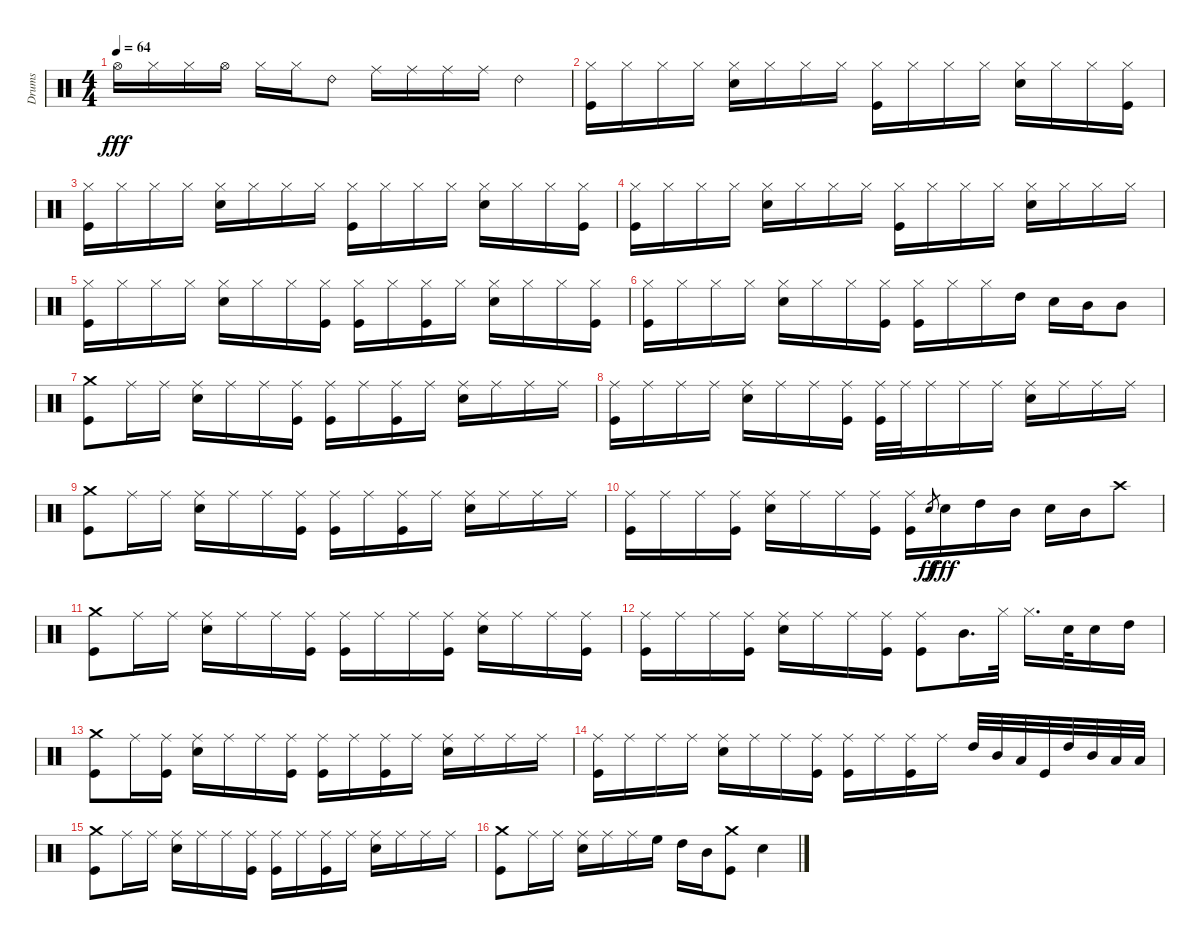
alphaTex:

\track ("Drums" "Drums") {instrument percussion}
\staff {score}
\articulation defaults
\ts (4 4)
\tempo 64
\clef neutral
\scale
0.333333
\ks c "Hi-Hat (open)".16{dy fff} "Hi-Hat (closed)".16 "Hi-Hat (closed)".16 "Hi-Hat (open)".16 "Hi-Hat (closed)".16 "Hi-Hat (closed)".16 "Ride (bell) 2".8 "Ride (middle)".16 "Ride (middle)".16 "Ride (middle)".16 "Ride (middle)".16 "Ride (bell) 2".4
|
\scale
0.333333 ("Hi-Hat (closed)" "Kick (hit)").16 "Hi-Hat (closed)".16 "Hi-Hat (closed)".16 "Hi-Hat (closed)".16 ("Hi-Hat (closed)" "Snare (hit) 2").16 "Hi-Hat (closed)".16 "Hi-Hat (closed)".16 "Hi-Hat (closed)".16 ("Hi-Hat (closed)" "Kick (hit)").16 "Hi-Hat (closed)".16 "Hi-Hat (closed)".16 "Hi-Hat (closed)".16 ("Hi-Hat (closed)" "Snare (hit) 2").16 "Hi-Hat (closed)".16 "Hi-Hat (closed)".16 ("Hi-Hat (closed)" "Kick (hit)").16 |
\scale
0.333333 ("Hi-Hat (closed)" "Kick (hit)").16 "Hi-Hat (closed)".16 "Hi-Hat (closed)".16 "Hi-Hat (closed)".16 ("Hi-Hat (closed)" "Snare (hit) 2").16 "Hi-Hat (closed)".16 "Hi-Hat (closed)".16 "Hi-Hat (closed)".16 ("Hi-Hat (closed)" "Kick (hit)").16 "Hi-Hat (closed)".16 "Hi-Hat (closed)".16 "Hi-Hat (closed)".16 ("Hi-Hat (closed)" "Snare (hit) 2").16 "Hi-Hat (closed)".16 "Hi-Hat (closed)".16 ("Hi-Hat (closed)" "Kick (hit)").16 |
\scale
0.333333 ("Hi-Hat (closed)" "Kick (hit)").16 "Hi-Hat (closed)".16 "Hi-Hat (closed)".16 "Hi-Hat (closed)".16 ("Hi-Hat (closed)" "Snare (hit) 2").16 "Hi-Hat (closed)".16 "Hi-Hat (closed)".16 "Hi-Hat (closed)".16 ("Hi-Hat (closed)" "Kick (hit)").16 "Hi-Hat (closed)".16 "Hi-Hat (closed)".16 "Hi-Hat (closed)".16 ("Hi-Hat (closed)" "Snare (hit) 2").16 "Hi-Hat (closed)".16 "Hi-Hat (closed)".16 "Hi-Hat (closed)".16 |
\scale
0.333333 ("Hi-Hat (closed)" "Kick (hit)").16 "Hi-Hat (closed)".16 "Hi-Hat (closed)".16 "Hi-Hat (closed)".16 ("Hi-Hat (closed)" "Snare (hit) 2").16 "Hi-Hat (closed)".16 "Hi-Hat (closed)".16 ("Hi-Hat (closed)" "Kick (hit)").16 ("Hi-Hat (closed)" "Kick (hit)").16 "Hi-Hat (closed)".16 ("Hi-Hat (closed)" "Kick (hit)").16 "Hi-Hat (closed)".16 ("Hi-Hat (closed)" "Snare (hit) 2").16 "Hi-Hat (closed)".16 "Hi-Hat (closed)".16 ("Hi-Hat (closed)" "Kick (hit)").16 |
\scale
0.333333 ("Hi-Hat (closed)" "Kick (hit)").16 "Hi-Hat (closed)".16 "Hi-Hat (closed)".16 "Hi-Hat (closed)".16 ("Hi-Hat (closed)" "Snare (hit) 2").16 "Hi-Hat (closed)".16 "Hi-Hat (closed)".16 ("Hi-Hat (closed)" "Kick (hit)").16 ("Hi-Hat (closed)" "Kick (hit)").16 "Hi-Hat (closed)".16 "Hi-Hat (closed)".16 "High Tom (hit)".16 "Snare (hit) 2".16 "Mid Tom (hit)".16 "Mid Tom (hit)".8 |
\scale
0.333333 ("Crash medium (hit)" "Kick (hit)").8 "Ride (middle)".16 "Ride (middle)".16 ("Ride (middle)" "Snare (hit) 2").16 "Ride (middle)".16 "Ride (middle)".16 ("Ride (middle)" "Kick (hit)").16 ("Ride (middle)" "Kick (hit)").16 "Ride (middle)".16 ("Ride (middle)" "Kick (hit)").16 "Ride (middle)".16 ("Ride (middle)" "Snare (hit) 2").16 "Ride (middle)".16 "Ride (middle)".16 "Ride (middle)".16 |
\scale
0.333333 ("Ride (middle)" "Kick (hit)").16 "Ride (middle)".16 "Ride (middle)".16 "Ride (middle)".16 ("Ride (middle)" "Snare (hit) 2").16 "Ride (middle)".16 "Ride (middle)".16 ("Ride (middle)" "Kick (hit)").16 ("Ride (middle)" "Kick (hit)").32 "Ride (middle)".32 "Ride (middle)".16 "Ride (middle)".16 "Ride (middle)".16 ("Ride (middle)" "Snare (hit) 2").16 "Ride (middle)".16 "Ride (middle)".16 "Ride (middle)".16 |
\scale
0.333333 ("Crash medium (hit)" "Kick (hit)").8 "Ride (middle)".16 "Ride (middle)".16 ("Ride (middle)" "Snare (hit) 2").16 "Ride (middle)".16 "Ride (middle)".16 ("Ride (middle)" "Kick (hit)").16 ("Ride (middle)" "Kick (hit)").16 "Ride (middle)".16 ("Ride (middle)" "Kick (hit)").16 "Ride (middle)".16 ("Ride (middle)" "Snare (hit) 2").16 "Ride (middle)".16 "Ride (middle)".16 "Ride (middle)".16 |
\scale
0.333333 ("Ride (middle)" "Kick (hit)").16 "Ride (middle)".16 "Ride (middle)".16 ("Ride (middle)" "Kick (hit)").16 ("Ride (middle)" "Snare (hit) 2").16 "Ride (middle)".16 "Ride (middle)".16 ("Ride (middle)" "Kick (hit)").16 ("Ride (middle)" "Kick (hit)").16 "Snare (hit) 2".8{gr dy ff} "Snare (hit) 2".16{dy fff} "High Tom (hit)".16 "Mid Tom (hit)".16 "Snare (hit) 2".16 "Mid Tom (hit)".16 "Crash high (hit)".8 |
\scale
0.333333 ("Crash medium (hit)" "Kick (hit)").8 "Ride (middle)".16 "Ride (middle)".16 ("Ride (middle)" "Snare (hit) 2").16 "Ride (middle)".16 "Ride (middle)".16 ("Ride (middle)" "Kick (hit)").16 ("Ride (middle)" "Kick (hit)").16 "Ride (middle)".16 "Ride (middle)".16 ("Ride (middle)" "Kick (hit)").16 ("Ride (middle)" "Snare (hit) 2").16 "Ride (middle)".16 "Ride (middle)".16 ("Ride (middle)" "Kick (hit)").16 |
\scale
0.333333 ("Ride (middle)" "Kick (hit)").16 "Ride (middle)".16 "Ride (middle)".16 ("Ride (middle)" "Kick (hit)").16 ("Ride (middle)" "Snare (hit) 2").16 "Ride (middle)".16 "Ride (middle)".16 ("Ride (middle)" "Kick (hit)").16 ("Ride (middle)" "Kick (hit)").8 "Mid Tom (hit)".16{d} "Hi-Hat (closed)".32 "Hi-Hat (closed)".16{d} "Snare (hit) 2".32 "Snare (hit) 2".16 "High Tom (hit)".16 |
\scale
0.333333 ("Crash medium (hit)" "Kick (hit)").8 "Ride (middle)".16 ("Ride (middle)" "Kick (hit)").16 ("Ride (middle)" "Snare (hit) 2").16 "Ride (middle)".16 "Ride (middle)".16 ("Ride (middle)" "Kick (hit)").16 ("Ride (middle)" "Kick (hit)").16 "Ride (middle)".16 ("Ride (middle)" "Kick (hit)").16 "Ride (middle)".16 ("Ride (middle)" "Snare (hit) 2").16 "Ride (middle)".16 "Ride (middle)".16 "Ride (middle)".16 |
\scale
0.333333 ("Ride (middle)" "Kick (hit)").16 "Ride (middle)".16 "Ride (middle)".16 "Ride (middle)".16 ("Ride (middle)" "Snare (hit) 2").16 "Ride (middle)".16 "Ride (middle)".16 ("Ride (middle)" "Kick (hit)").16 ("Ride (middle)" "Kick (hit)").16 "Ride (middle)".16 ("Ride (middle)" "Kick (hit)").16 "Ride (middle)".16 "High Tom (hit)".32 "Mid Tom (hit)".32 "Low Tom (hit)".32 "Kick (hit)".32 "High Tom (hit)".32 "Mid Tom (hit)".32 "Low Tom (hit)".32 "Low Tom (hit)".32 |
\scale
0.333333 ("Crash medium (hit)" "Kick (hit)").8 "Ride (middle)".16 "Ride (middle)".16 ("Ride (middle)" "Snare (hit) 2").16 "Ride (middle)".16 "Ride (middle)".16 ("Ride (middle)" "Kick (hit)").16 ("Ride (middle)" "Kick (hit)").16 "Ride (middle)".16 ("Ride (middle)" "Kick (hit)").16 "Ride (middle)".16 ("Ride (middle)" "Snare (hit) 2").16 "Ride (middle)".16 "Ride (middle)".16 "Ride (middle)".16 |
("Crash medium (hit)" "Kick (hit)").8 "Ride (middle)".16 "Ride (middle)".16 ("Ride (middle)" "Snare (hit) 2").16 "Ride (middle)".16 "Ride (middle)".16 "High Floor Tom (hit)".16 "High Tom (hit)".16 "Mid Tom (hit)".16 ("Crash medium (hit)" "Kick (hit)").8 "Snare (hit) 2".4
